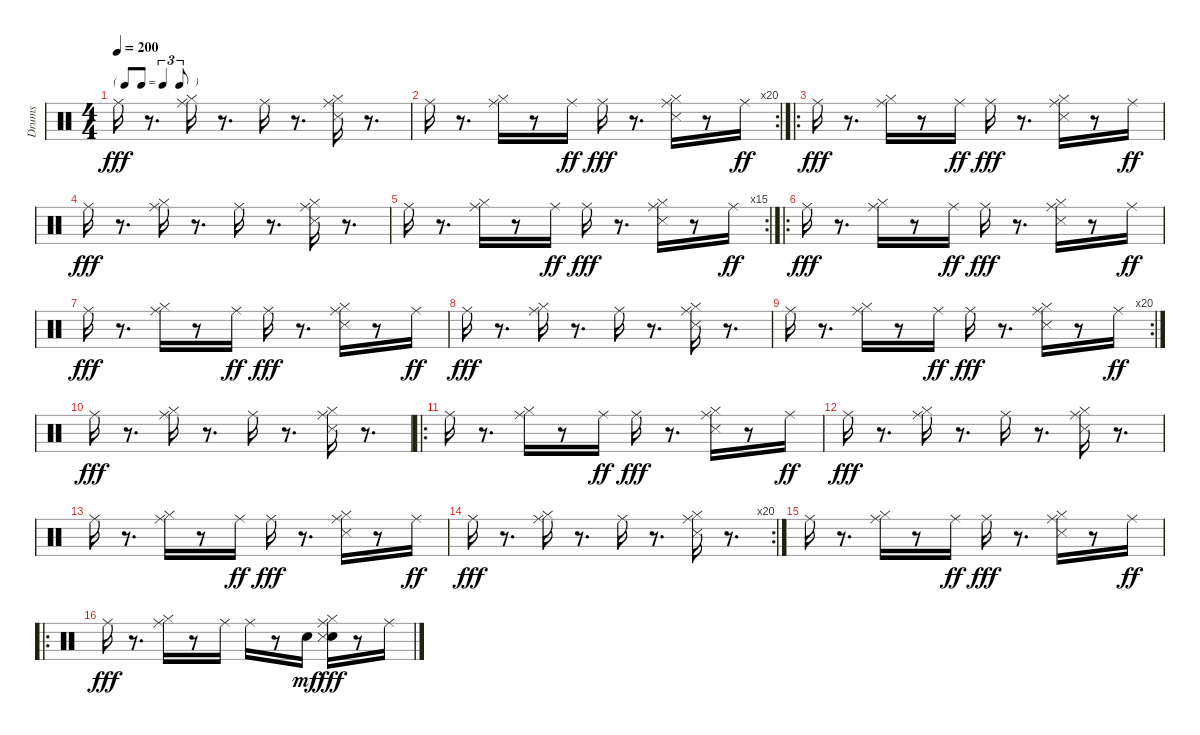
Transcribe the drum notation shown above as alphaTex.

\track ("Drums                                   " "Drums     ") {instrument percussion}
\staff {score}
\articulation defaults
\ts (4 4)
\tf triplet8th
\tempo 200
\clef neutral
\ks c "Ride (middle)".16{dy fff}
r.8{d} ("Hi-Hat (closed)" "Ride (middle)").16 r.8{d} "Ride (middle)".16 r.8{d} ("Hi-Hat (closed)" "Snare (side stick) 3" "Ride (middle)").16 r.8{d} |
\rc 20 "Ride (middle)".16
r.8{d} ("Hi-Hat (closed)" "Ride (middle)").16 r.8 "Ride (middle)".16{dy ff} "Ride (middle)".16{dy fff} r.8{d} ("Hi-Hat (closed)" "Snare (side stick) 3" "Ride (middle)").16 r.8 "Ride (middle)".16{dy ff} |
\ro "Ride (middle)".16{dy fff}
r.8{d} ("Hi-Hat (closed)" "Ride (middle)").16 r.8 "Ride (middle)".16{dy ff} "Ride (middle)".16{dy fff} r.8{d} ("Hi-Hat (closed)" "Snare (side stick) 3" "Ride (middle)").16 r.8 "Ride (middle)".16{dy ff} |
"Ride (middle)".16{dy fff} r.8{d} ("Hi-Hat (closed)" "Ride (middle)").16 r.8{d} "Ride (middle)".16 r.8{d} ("Hi-Hat (closed)" "Snare (side stick) 3" "Ride (middle)").16 r.8{d} |
\rc 15 "Ride (middle)".16
r.8{d} ("Hi-Hat (closed)" "Ride (middle)").16 r.8 "Ride (middle)".16{dy ff} "Ride (middle)".16{dy fff} r.8{d} ("Hi-Hat (closed)" "Snare (side stick) 3" "Ride (middle)").16 r.8 "Ride (middle)".16{dy ff} |
\ro "Ride (middle)".16{dy fff}
r.8{d} ("Hi-Hat (closed)" "Ride (middle)").16 r.8 "Ride (middle)".16{dy ff} "Ride (middle)".16{dy fff} r.8{d} ("Hi-Hat (closed)" "Snare (side stick) 3" "Ride (middle)").16 r.8 "Ride (middle)".16{dy ff} |
"Ride (middle)".16{dy fff} r.8{d} ("Hi-Hat (closed)" "Ride (middle)").16 r.8 "Ride (middle)".16{dy ff} "Ride (middle)".16{dy fff} r.8{d} ("Hi-Hat (closed)" "Snare (side stick) 3" "Ride (middle)").16 r.8 "Ride (middle)".16{dy ff} |
"Ride (middle)".16{dy fff} r.8{d} ("Hi-Hat (closed)" "Ride (middle)").16 r.8{d} "Ride (middle)".16 r.8{d} ("Hi-Hat (closed)" "Snare (side stick) 3" "Ride (middle)").16 r.8{d} |
\rc 20 "Ride (middle)".16
r.8{d} ("Hi-Hat (closed)" "Ride (middle)").16 r.8 "Ride (middle)".16{dy ff} "Ride (middle)".16{dy fff} r.8{d} ("Hi-Hat (closed)" "Snare (side stick) 3" "Ride (middle)").16 r.8 "Ride (middle)".16{dy ff} |
"Ride (middle)".16{dy fff} r.8{d} ("Hi-Hat (closed)" "Ride (middle)").16 r.8{d} "Ride (middle)".16 r.8{d} ("Hi-Hat (closed)" "Snare (side stick) 3" "Ride (middle)").16 r.8{d} |
\ro "Ride (middle)".16
r.8{d} ("Hi-Hat (closed)" "Ride (middle)").16 r.8 "Ride (middle)".16{dy ff} "Ride (middle)".16{dy fff} r.8{d} ("Hi-Hat (closed)" "Snare (side stick) 3" "Ride (middle)").16 r.8 "Ride (middle)".16{dy ff} |
"Ride (middle)".16{dy fff} r.8{d} ("Hi-Hat (closed)" "Ride (middle)").16 r.8{d} "Ride (middle)".16 r.8{d} ("Hi-Hat (closed)" "Snare (side stick) 3" "Ride (middle)").16 r.8{d} |
"Ride (middle)".16 r.8{d} ("Hi-Hat (closed)" "Ride (middle)").16 r.8 "Ride (middle)".16{dy ff} "Ride (middle)".16{dy fff} r.8{d} ("Hi-Hat (closed)" "Snare (side stick) 3" "Ride (middle)").16 r.8 "Ride (middle)".16{dy ff} |
\rc 20 "Ride (middle)".16{dy fff}
r.8{d} ("Hi-Hat (closed)" "Ride (middle)").16 r.8{d} "Ride (middle)".16 r.8{d} ("Hi-Hat (closed)" "Snare (side stick) 3" "Ride (middle)").16 r.8{d} |
"Ride (middle)".16 r.8{d} ("Hi-Hat (closed)" "Ride (middle)").16 r.8 "Ride (middle)".16{dy ff} "Ride (middle)".16{dy fff} r.8{d} ("Hi-Hat (closed)" "Snare (side stick) 3" "Ride (middle)").16 r.8 "Ride (middle)".16{dy ff} |
\ro "Ride (middle)".16{dy fff}
r.8{d} ("Hi-Hat (closed)" "Ride (middle)").16 r.8 "Ride (middle)".16 "Ride (middle)".16 r.8 "Snare (hit) 2".16{dy mf} ("Snare (hit) 2" "Hi-Hat (closed)" "Snare (side stick) 3" "Ride (middle)").16{dy fff} r.8 "Ride (middle)".16
